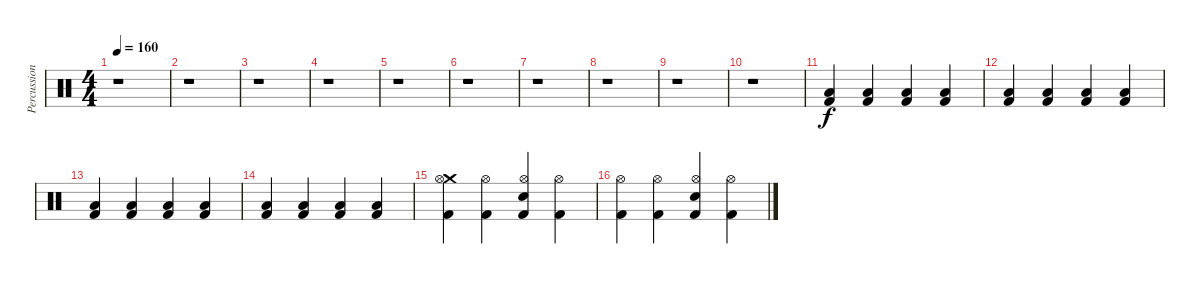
\track ("Percussion" "Percussion") {instrument percussion}
\staff {score}
\articulation defaults
\ts (4 4)
\tempo 160
\clef neutral
\ks c
r.1{dy ff} |
r.1 |
r.1 |
r.1 |
r.1 |
r.1 |
r.1 |
r.1 |
r.1 |
r.1 |
("Low Floor Tom (hit)" "Kick (hit) 2").4{dy f} ("Low Floor Tom (hit)" "Kick (hit) 2").4 ("Low Floor Tom (hit)" "Kick (hit) 2").4 ("Low Floor Tom (hit)" "Kick (hit) 2").4 |
("Low Floor Tom (hit)" "Kick (hit) 2").4 ("Low Floor Tom (hit)" "Kick (hit) 2").4 ("Low Floor Tom (hit)" "Kick (hit) 2").4 ("Low Floor Tom (hit)" "Kick (hit) 2").4 |
("Low Floor Tom (hit)" "Kick (hit) 2").4 ("Low Floor Tom (hit)" "Kick (hit) 2").4 ("Low Floor Tom (hit)" "Kick (hit) 2").4 ("Low Floor Tom (hit)" "Kick (hit) 2").4 |
("Low Floor Tom (hit)" "Kick (hit) 2").4 ("Low Floor Tom (hit)" "Kick (hit) 2").4 ("Low Floor Tom (hit)" "Kick (hit) 2").4 ("Low Floor Tom (hit)" "Kick (hit) 2").4 |
("Crash medium (hit)" "Hi-Hat (open)" "Kick (hit) 2").4 ("Hi-Hat (open)" "Kick (hit) 2").4 ("Hi-Hat (open)" "Electric Snare (hit)" "Kick (hit) 2").4 ("Hi-Hat (open)" "Kick (hit) 2").4 |
("Hi-Hat (open)" "Kick (hit) 2").4 ("Hi-Hat (open)" "Kick (hit) 2").4 ("Hi-Hat (open)" "Electric Snare (hit)" "Kick (hit) 2").4 ("Hi-Hat (open)" "Kick (hit) 2").4
